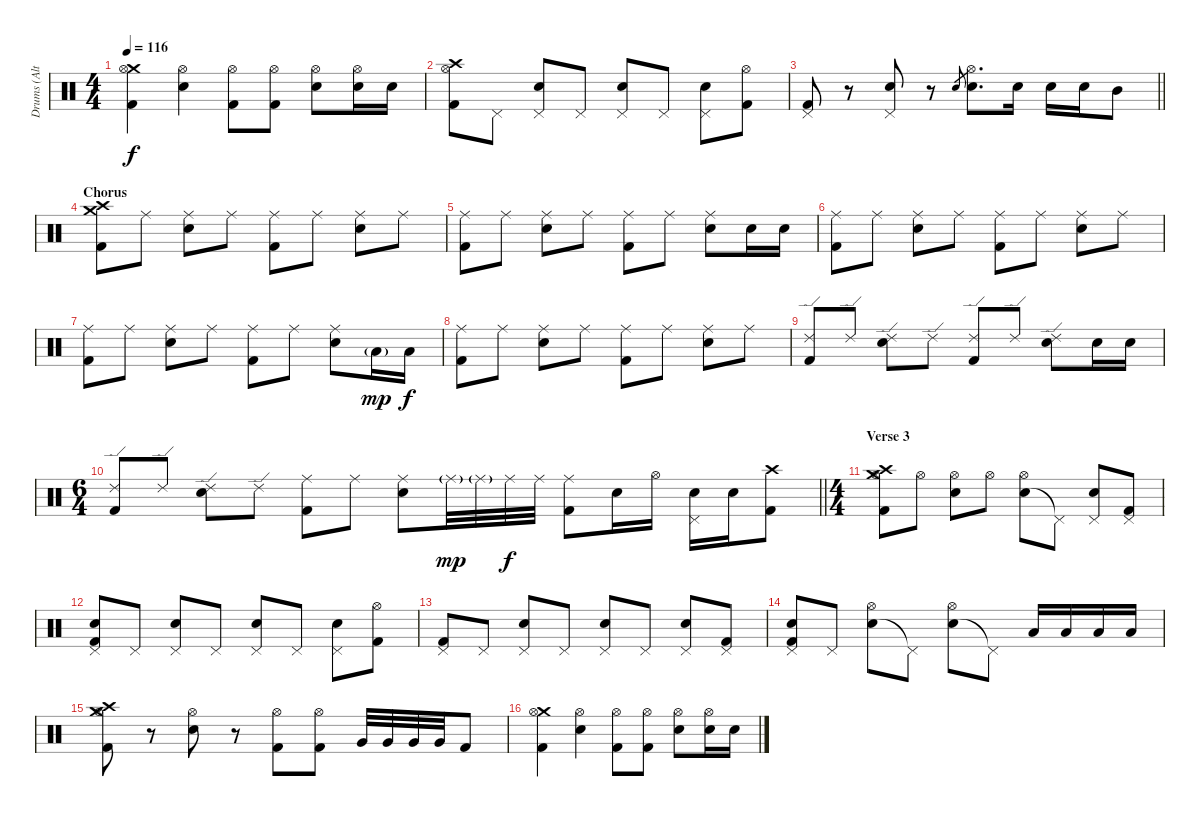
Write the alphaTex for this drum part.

\track ("Drums (Alternate - NOT ON MASTER)" "Drums (Alt") {mute instrument percussion}
\staff {score}
\articulation defaults
\ts (4 4)
\tempo 116
\clef neutral
\ks c
("Crash medium (hit)" "Hi-Hat (open)" "Kick (hit) 2").4{dy f} ("Snare (hit) 2" "Hi-Hat (open)").4 ("Hi-Hat (open)" "Kick (hit) 2").8 ("Hi-Hat (open)" "Kick (hit) 2").8 ("Snare (hit) 2" "Hi-Hat (open)").8 ("Snare (hit) 2" "Hi-Hat (open)").16 "Snare (hit) 2".16 |
("Crash high (hit)" "Hi-Hat (open)" "Kick (hit) 2").8 "Pedal Hi-Hat (hit)".8 ("Snare (hit) 2" "Pedal Hi-Hat (hit)").8 "Pedal Hi-Hat (hit)".8 ("Snare (hit) 2" "Pedal Hi-Hat (hit)").8 "Pedal Hi-Hat (hit)".8 ("Snare (hit) 2" "Pedal Hi-Hat (hit)").8 ("Hi-Hat (open)" "Kick (hit) 2").8 |
\barLineRight lightlight
("Pedal Hi-Hat (hit)" "Kick (hit) 2").8 r.8 ("Snare (hit) 2" "Pedal Hi-Hat (hit)").8 r.8 "Snare (hit) 2".8{gr} ("Snare (hit) 2" "Hi-Hat (open)").8{d} "Snare (hit) 2".16 "Snare (hit) 2".16 "Snare (hit) 2".16 "Mid Tom (hit)".8 |
\section ("" "Chorus")
("Crash medium (hit)" "Crash high (hit)" "Kick (hit) 2").8 "Ride (middle)".8 ("Ride (middle)" "Snare (hit) 2").8 "Ride (middle)".8 ("Ride (middle)" "Kick (hit) 2").8 "Ride (middle)".8 ("Ride (middle)" "Snare (hit) 2").8 "Ride (middle)".8 |
("Ride (middle)" "Kick (hit) 2").8 "Ride (middle)".8 ("Ride (middle)" "Snare (hit) 2").8 "Ride (middle)".8 ("Ride (middle)" "Kick (hit) 2").8 "Ride (middle)".8 ("Ride (middle)" "Snare (hit) 2").8 "Snare (hit) 2".16 "Snare (hit) 2".16 |
("Ride (middle)" "Kick (hit) 2").8 "Ride (middle)".8 ("Ride (middle)" "Snare (hit) 2").8 "Ride (middle)".8 ("Ride (middle)" "Kick (hit) 2").8 "Ride (middle)".8 ("Ride (middle)" "Snare (hit) 2").8 "Ride (middle)".8 |
("Ride (middle)" "Kick (hit) 2").8 "Ride (middle)".8 ("Ride (middle)" "Snare (hit) 2").8 "Ride (middle)".8 ("Ride (middle)" "Kick (hit) 2").8 "Ride (middle)".8 ("Ride (middle)" "Snare (hit) 2").8 "Low Floor Tom (hit)"{g}.16{dy mp} "Low Floor Tom (hit)".16{dy f} |
("Ride (middle)" "Kick (hit) 2").8 "Ride (middle)".8 ("Ride (middle)" "Snare (hit) 2").8 "Ride (middle)".8 ("Ride (middle)" "Kick (hit) 2").8 "Ride (middle)".8 ("Ride (middle)" "Snare (hit) 2").8 "Ride (middle)".8 |
("Ride (edge) 2" "Kick (hit) 2").8 "Ride (edge) 2".8 ("Ride (edge) 2" "Snare (hit) 2").8 "Ride (edge) 2".8 ("Ride (edge) 2" "Kick (hit) 2").8 "Ride (edge) 2".8 ("Ride (edge) 2" "Snare (hit) 2").8 "Snare (hit) 2".16 "Snare (hit) 2".16 |
\ts (6 4)
\barLineRight lightlight
("Ride (edge) 2" "Kick (hit) 2").8 "Ride (edge) 2".8 ("Ride (edge) 2" "Snare (hit) 2").8 "Ride (edge) 2".8 ("Ride (middle)" "Kick (hit) 2").8 "Ride (middle)".8 ("Ride (middle)" "Snare (hit) 2").8 "Ride (middle)"{g}.32{dy mp} "Ride (middle)"{g}.32 "Ride (middle)".32{dy f} "Ride (middle)".32 ("Ride (middle)" "Kick (hit) 2").8 "Snare (hit) 2".16 "Hi-Hat (open)".16 ("Pedal Hi-Hat (hit)" "Snare (hit) 2").16 "Snare (hit) 2".16 ("Crash high (hit)" "Kick (hit) 2").8 |
\ts (4 4)
\section ("" "Verse 3")
("Crash medium (hit)" "Crash high (hit)" "Hi-Hat (open)" "Kick (hit) 2").8 "Hi-Hat (open)".8 ("Snare (hit) 2" "Hi-Hat (open)").8 "Hi-Hat (open)".8 ("Snare (hit) 2" "Hi-Hat (open)").8 "Pedal Hi-Hat (hit)"{t}.8 ("Snare (hit) 2" "Pedal Hi-Hat (hit)").8 ("Pedal Hi-Hat (hit)" "Kick (hit) 2").8 |
("Snare (hit) 2" "Pedal Hi-Hat (hit)" "Kick (hit) 2").8 "Pedal Hi-Hat (hit)".8 ("Snare (hit) 2" "Pedal Hi-Hat (hit)").8 "Pedal Hi-Hat (hit)".8 ("Snare (hit) 2" "Pedal Hi-Hat (hit)").8 "Pedal Hi-Hat (hit)".8 ("Snare (hit) 2" "Pedal Hi-Hat (hit)").8 ("Hi-Hat (open)" "Kick (hit) 2").8 |
("Pedal Hi-Hat (hit)" "Kick (hit) 2").8 "Pedal Hi-Hat (hit)".8 ("Snare (hit) 2" "Pedal Hi-Hat (hit)").8 "Pedal Hi-Hat (hit)".8 ("Snare (hit) 2" "Pedal Hi-Hat (hit)").8 "Pedal Hi-Hat (hit)".8 ("Snare (hit) 2" "Pedal Hi-Hat (hit)").8 ("Pedal Hi-Hat (hit)" "Kick (hit) 2").8 |
("Snare (hit) 2" "Pedal Hi-Hat (hit)" "Kick (hit) 2").8 "Pedal Hi-Hat (hit)".8 ("Snare (hit) 2" "Hi-Hat (open)").8 "Pedal Hi-Hat (hit)"{t}.8 ("Snare (hit) 2" "Hi-Hat (open)").8 "Pedal Hi-Hat (hit)"{t}.8 "Low Tom (hit)".16 "Low Tom (hit)".16 "Low Tom (hit)".16 "Low Tom (hit)".16 |
("Crash medium (hit)" "Crash high (hit)" "Hi-Hat (open)" "Kick (hit) 2").8 r.8 ("Snare (hit) 2" "Hi-Hat (open)").8 r.8 ("Hi-Hat (open)" "Kick (hit) 2").8 ("Hi-Hat (open)" "Kick (hit) 2").8 "Very Low Tom (hit)".32 "Very Low Tom (hit)".32 "Very Low Tom (hit)".32 "Very Low Tom (hit)".32 "Kick (hit) 2".8 |
("Crash medium (hit)" "Hi-Hat (open)" "Kick (hit) 2").4 ("Snare (hit) 2" "Hi-Hat (open)").4 ("Hi-Hat (open)" "Kick (hit) 2").8 ("Hi-Hat (open)" "Kick (hit) 2").8 ("Snare (hit) 2" "Hi-Hat (open)").8 ("Snare (hit) 2" "Hi-Hat (open)").16 "Snare (hit) 2".16
